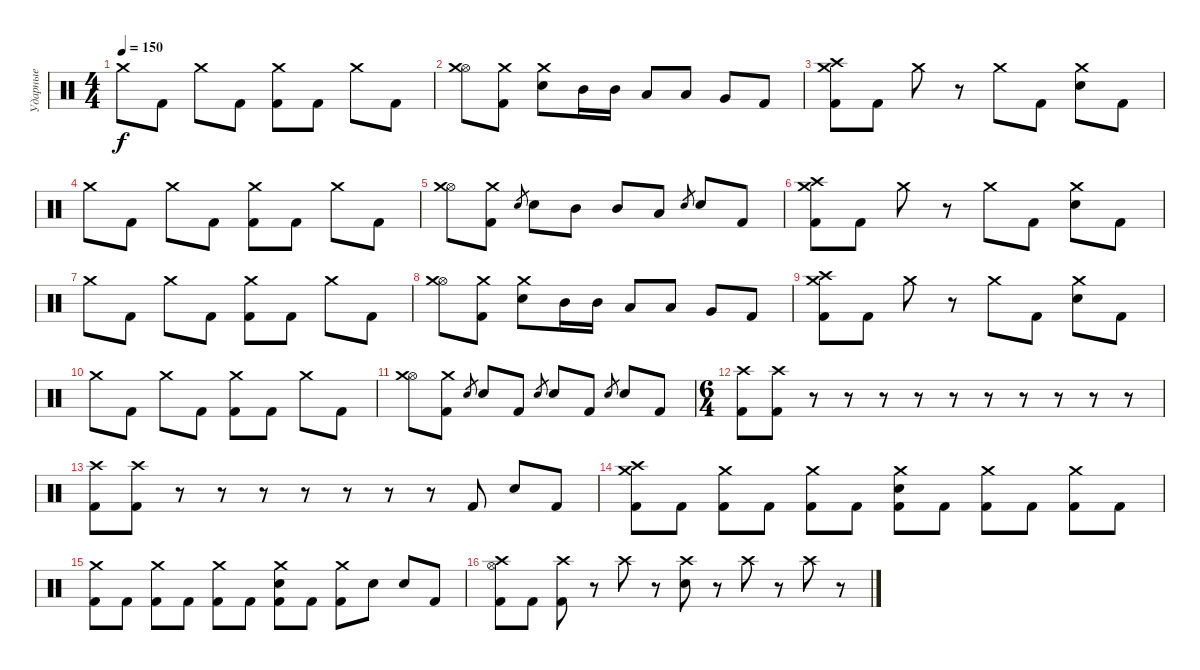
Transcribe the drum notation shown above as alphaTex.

\track ("Ударные" "Ударные") {instrument percussion}
\staff {score}
\articulation defaults
\ts (4 4)
\tempo 150
\clef neutral
\ks c "Crash medium (hit)".8{dy f} "Kick (hit) 2".8 "Crash medium (hit)".8 "Kick (hit) 2".8
("Crash medium (hit)" "Kick (hit) 2").8 "Kick (hit) 2".8 "Crash medium (hit)".8 "Kick (hit) 2".8 |
("Hi-Hat (open)" "Crash medium (hit)").8 ("Crash medium (hit)" "Kick (hit) 2").8 ("Crash medium (hit)" "Electric Snare (hit)").8 "Mid Tom (hit)".16 "Mid Tom (hit)".16 "Low Tom (hit)".8 "Low Tom (hit)".8 "Very Low Tom (hit)".8 "Kick (hit) 2".8 |
("Crash high (hit)" "Crash medium (hit)" "Kick (hit) 2").8 "Kick (hit) 2".8 "Crash medium (hit)".8 r.8 "Crash medium (hit)".8 "Kick (hit) 2".8 ("Crash medium (hit)" "Electric Snare (hit)").8 "Kick (hit) 2".8 |
"Crash medium (hit)".8 "Kick (hit) 2".8 "Crash medium (hit)".8 "Kick (hit) 2".8 ("Crash medium (hit)" "Kick (hit) 2").8 "Kick (hit) 2".8 "Crash medium (hit)".8 "Kick (hit) 2".8 |
("Hi-Hat (open)" "Crash medium (hit)").8 ("Crash medium (hit)" "Kick (hit) 2").8 "Electric Snare (hit)".8{gr} "Electric Snare (hit)".8 "Mid Tom (hit)".8 "Mid Tom (hit)".8 "Low Tom (hit)".8 "Electric Snare (hit)".8{gr} "Electric Snare (hit)".8 "Kick (hit) 2".8 |
("Crash high (hit)" "Crash medium (hit)" "Kick (hit) 2").8 "Kick (hit) 2".8 "Crash medium (hit)".8 r.8 "Crash medium (hit)".8 "Kick (hit) 2".8 ("Crash medium (hit)" "Electric Snare (hit)").8 "Kick (hit) 2".8 |
"Crash medium (hit)".8 "Kick (hit) 2".8 "Crash medium (hit)".8 "Kick (hit) 2".8 ("Crash medium (hit)" "Kick (hit) 2").8 "Kick (hit) 2".8 "Crash medium (hit)".8 "Kick (hit) 2".8 |
("Hi-Hat (open)" "Crash medium (hit)").8 ("Crash medium (hit)" "Kick (hit) 2").8 ("Crash medium (hit)" "Electric Snare (hit)").8 "Mid Tom (hit)".16 "Mid Tom (hit)".16 "Low Tom (hit)".8 "Low Tom (hit)".8 "Very Low Tom (hit)".8 "Kick (hit) 2".8 |
("Crash high (hit)" "Crash medium (hit)" "Kick (hit) 2").8 "Kick (hit) 2".8 "Crash medium (hit)".8 r.8 "Crash medium (hit)".8 "Kick (hit) 2".8 ("Crash medium (hit)" "Electric Snare (hit)").8 "Kick (hit) 2".8 |
"Crash medium (hit)".8 "Kick (hit) 2".8 "Crash medium (hit)".8 "Kick (hit) 2".8 ("Crash medium (hit)" "Kick (hit) 2").8 "Kick (hit) 2".8 "Crash medium (hit)".8 "Kick (hit) 2".8 |
("Hi-Hat (open)" "Crash medium (hit)").8 ("Crash medium (hit)" "Kick (hit) 2").8 "Electric Snare (hit)".8{gr} "Electric Snare (hit)".8 "Kick (hit) 2".8 "Electric Snare (hit)".8{gr} "Electric Snare (hit)".8 "Kick (hit) 2".8 "Electric Snare (hit)".8{gr} "Electric Snare (hit)".8 "Kick (hit) 2".8 |
\ts (6 4)
("Crash high (hit)" "Kick (hit) 2").8 ("Crash high (hit)" "Kick (hit) 2").8 r.8 r.8 r.8 r.8 r.8 r.8 r.8 r.8 r.8 r.8 |
("Crash high (hit)" "Kick (hit) 2").8 ("Crash high (hit)" "Kick (hit) 2").8 r.8 r.8 r.8 r.8 r.8 r.8 r.8 "Kick (hit) 2".8 "Electric Snare (hit)".8 "Kick (hit) 2".8 |
("Crash high (hit)" "Crash medium (hit)" "Kick (hit) 2").8 "Kick (hit) 2".8 ("Crash medium (hit)" "Kick (hit) 2").8 "Kick (hit) 2".8 ("Crash medium (hit)" "Kick (hit) 2").8 "Kick (hit) 2".8 ("Crash medium (hit)" "Electric Snare (hit)" "Kick (hit) 2").8 "Kick (hit) 2".8 ("Crash medium (hit)" "Kick (hit) 2").8 "Kick (hit) 2".8 ("Crash medium (hit)" "Kick (hit) 2").8 "Kick (hit) 2".8 |
("Crash medium (hit)" "Kick (hit) 2").8 "Kick (hit) 2".8 ("Crash medium (hit)" "Kick (hit) 2").8 "Kick (hit) 2".8 ("Crash medium (hit)" "Kick (hit) 2").8 "Kick (hit) 2".8 ("Crash medium (hit)" "Electric Snare (hit)" "Kick (hit) 2").8 "Kick (hit) 2".8 ("Crash medium (hit)" "Kick (hit) 2").8 "Electric Snare (hit)".8 "Electric Snare (hit)".8 "Kick (hit) 2".8 |
("Crash high (hit)" "Hi-Hat (open)" "Kick (hit) 2").8 "Kick (hit) 2".8 ("Crash high (hit)" "Kick (hit) 2").8 r.8 "Crash high (hit)".8 r.8 ("Crash high (hit)" "Electric Snare (hit)").8 r.8 "Crash high (hit)".8 r.8 "Crash high (hit)".8 r.8
